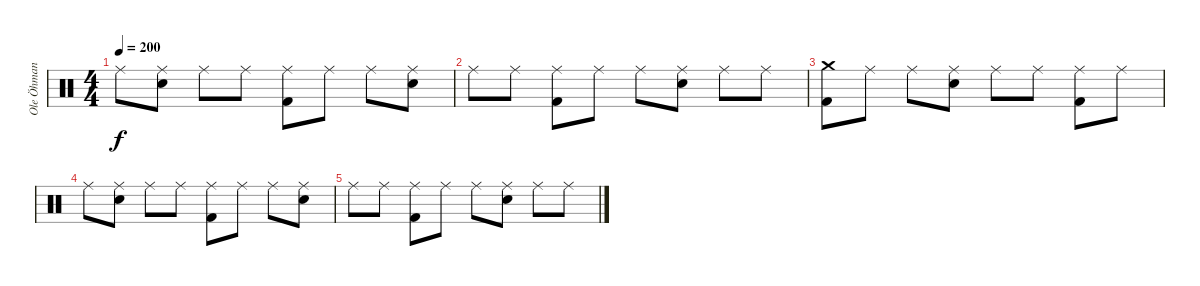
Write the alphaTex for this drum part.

\track ("Ole Öhman" "Ole Öhman") {instrument percussion}
\staff {score}
\articulation defaults
\ts (4 4)
\tempo 200
\clef neutral
\ks c "Ride (middle)".8{dy f}
("Ride (middle)" "Snare (hit) 2").8 "Ride (middle)".8 "Ride (middle)".8 ("Ride (middle)" "Kick (hit) 2").8 "Ride (middle)".8 "Ride (middle)".8 ("Ride (middle)" "Snare (hit) 2").8 |
"Ride (middle)".8 "Ride (middle)".8 ("Ride (middle)" "Kick (hit) 2").8 "Ride (middle)".8 "Ride (middle)".8 ("Ride (middle)" "Snare (hit) 2").8 "Ride (middle)".8 "Ride (middle)".8 |
("Crash medium (hit)" "Kick (hit) 2").8 "Ride (middle)".8 "Ride (middle)".8 ("Ride (middle)" "Snare (hit) 2").8 "Ride (middle)".8 "Ride (middle)".8 ("Ride (middle)" "Kick (hit) 2").8 "Ride (middle)".8 |
"Ride (middle)".8 ("Ride (middle)" "Snare (hit) 2").8 "Ride (middle)".8 "Ride (middle)".8 ("Ride (middle)" "Kick (hit) 2").8 "Ride (middle)".8 "Ride (middle)".8 ("Ride (middle)" "Snare (hit) 2").8 |
"Ride (middle)".8 "Ride (middle)".8 ("Ride (middle)" "Kick (hit) 2").8 "Ride (middle)".8 "Ride (middle)".8 ("Ride (middle)" "Snare (hit) 2").8 "Ride (middle)".8 "Ride (middle)".8
